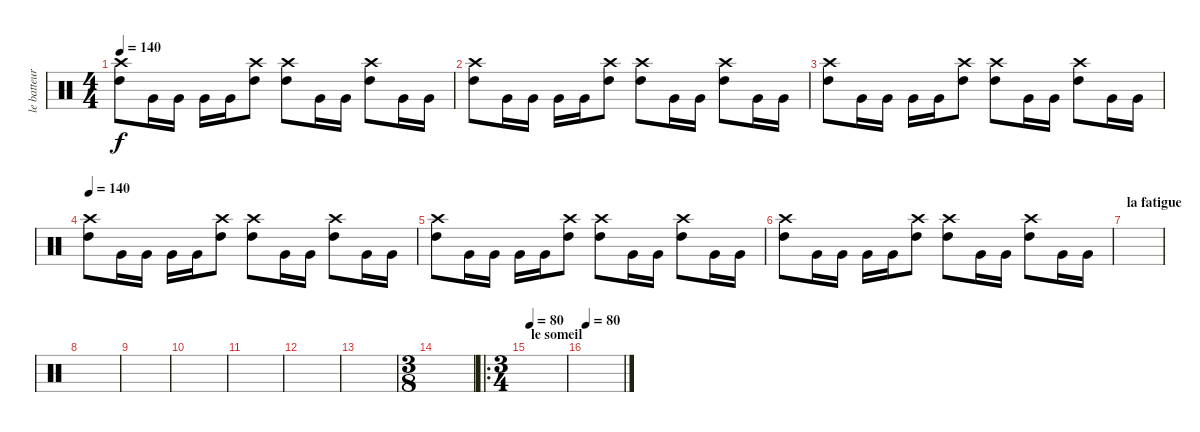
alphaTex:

\track ("le batteur" "le batteur") {instrument percussion}
\staff {score}
\articulation defaults
\ts (4 4)
\tempo 140
\clef neutral
\ks c
("Crash high (hit)" "High Tom (hit)").8{dy f} "Very Low Tom (hit)".16 "Very Low Tom (hit)".16 "Very Low Tom (hit)".16 "Very Low Tom (hit)".16 ("Crash high (hit)" "High Tom (hit)").8 ("Crash high (hit)" "High Tom (hit)").8 "Very Low Tom (hit)".16 "Very Low Tom (hit)".16 ("Crash high (hit)" "High Tom (hit)").8 "Very Low Tom (hit)".16 "Very Low Tom (hit)".16 |
("Crash high (hit)" "High Tom (hit)").8 "Very Low Tom (hit)".16 "Very Low Tom (hit)".16 "Very Low Tom (hit)".16 "Very Low Tom (hit)".16 ("Crash high (hit)" "High Tom (hit)").8 ("Crash high (hit)" "High Tom (hit)").8 "Very Low Tom (hit)".16 "Very Low Tom (hit)".16 ("Crash high (hit)" "High Tom (hit)").8 "Very Low Tom (hit)".16 "Very Low Tom (hit)".16 |
("Crash high (hit)" "High Tom (hit)").8 "Very Low Tom (hit)".16 "Very Low Tom (hit)".16 "Very Low Tom (hit)".16 "Very Low Tom (hit)".16 ("Crash high (hit)" "High Tom (hit)").8 ("Crash high (hit)" "High Tom (hit)").8 "Very Low Tom (hit)".16 "Very Low Tom (hit)".16 ("Crash high (hit)" "High Tom (hit)").8 "Very Low Tom (hit)".16 "Very Low Tom (hit)".16 |
\tempo 140
("Crash high (hit)" "High Tom (hit)").8 "Very Low Tom (hit)".16 "Very Low Tom (hit)".16 "Very Low Tom (hit)".16 "Very Low Tom (hit)".16 ("Crash high (hit)" "High Tom (hit)").8 ("Crash high (hit)" "High Tom (hit)").8 "Very Low Tom (hit)".16 "Very Low Tom (hit)".16 ("Crash high (hit)" "High Tom (hit)").8 "Very Low Tom (hit)".16 "Very Low Tom (hit)".16 |
("Crash high (hit)" "High Tom (hit)").8 "Very Low Tom (hit)".16 "Very Low Tom (hit)".16 "Very Low Tom (hit)".16 "Very Low Tom (hit)".16 ("Crash high (hit)" "High Tom (hit)").8 ("Crash high (hit)" "High Tom (hit)").8 "Very Low Tom (hit)".16 "Very Low Tom (hit)".16 ("Crash high (hit)" "High Tom (hit)").8 "Very Low Tom (hit)".16 "Very Low Tom (hit)".16 |
("Crash high (hit)" "High Tom (hit)").8 "Very Low Tom (hit)".16 "Very Low Tom (hit)".16 "Very Low Tom (hit)".16 "Very Low Tom (hit)".16 ("Crash high (hit)" "High Tom (hit)").8 ("Crash high (hit)" "High Tom (hit)").8 "Very Low Tom (hit)".16 "Very Low Tom (hit)".16 ("Crash high (hit)" "High Tom (hit)").8 "Very Low Tom (hit)".16 "Very Low Tom (hit)".16 |
\section ("" "la fatigue")
|
|
|
|
|
|
|
\ts (3 8)
|
\ro
\ts (3 4)
\section ("" "le someil")
\tempo 80
|
\tempo 80
